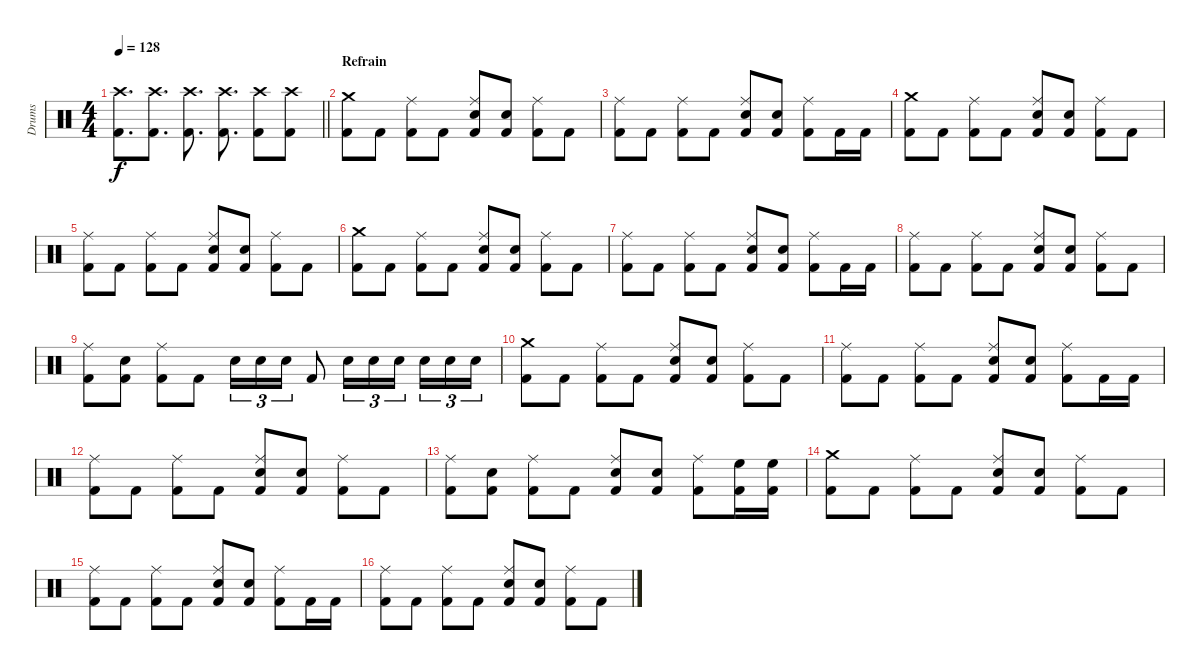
\track ("Drums" "Drums") {instrument percussion}
\staff {score}
\articulation defaults
\ts (4 4)
\tempo 128
\clef neutral
\barLineRight lightlight
\ks c
("Crash high (hit)" "Kick (hit) 2").8{d dy f} ("Crash high (hit)" "Kick (hit) 2").8{d} ("Crash high (hit)" "Kick (hit) 2").8{d} ("Crash high (hit)" "Kick (hit) 2").8{d} ("Crash high (hit)" "Kick (hit) 2").8 ("Crash high (hit)" "Kick (hit) 2").8 |
\section ("" "Refrain")
("Crash medium (hit)" "Kick (hit) 2").8 "Kick (hit) 2".8 ("Ride (middle)" "Kick (hit) 2").8 "Kick (hit) 2".8 ("Ride (middle)" "Snare (hit) 2" "Kick (hit) 2").8 ("Snare (hit) 2" "Kick (hit) 2").8 ("Ride (middle)" "Kick (hit) 2").8 "Kick (hit) 2".8 |
("Ride (middle)" "Kick (hit) 2").8 "Kick (hit) 2".8 ("Ride (middle)" "Kick (hit) 2").8 "Kick (hit) 2".8 ("Ride (middle)" "Snare (hit) 2" "Kick (hit) 2").8 ("Snare (hit) 2" "Kick (hit) 2").8 ("Ride (middle)" "Kick (hit) 2").8 "Kick (hit) 2".16 "Kick (hit) 2".16 |
("Crash medium (hit)" "Kick (hit) 2").8 "Kick (hit) 2".8 ("Ride (middle)" "Kick (hit) 2").8 "Kick (hit) 2".8 ("Ride (middle)" "Snare (hit) 2" "Kick (hit) 2").8 ("Snare (hit) 2" "Kick (hit) 2").8 ("Ride (middle)" "Kick (hit) 2").8 "Kick (hit) 2".8 |
("Ride (middle)" "Kick (hit) 2").8 "Kick (hit) 2".8 ("Ride (middle)" "Kick (hit) 2").8 "Kick (hit) 2".8 ("Ride (middle)" "Snare (hit) 2" "Kick (hit) 2").8 ("Snare (hit) 2" "Kick (hit) 2").8 ("Ride (middle)" "Kick (hit) 2").8 "Kick (hit) 2".8 |
("Crash medium (hit)" "Kick (hit) 2").8 "Kick (hit) 2".8 ("Ride (middle)" "Kick (hit) 2").8 "Kick (hit) 2".8 ("Ride (middle)" "Snare (hit) 2" "Kick (hit) 2").8 ("Snare (hit) 2" "Kick (hit) 2").8 ("Ride (middle)" "Kick (hit) 2").8 "Kick (hit) 2".8 |
("Ride (middle)" "Kick (hit) 2").8 "Kick (hit) 2".8 ("Ride (middle)" "Kick (hit) 2").8 "Kick (hit) 2".8 ("Ride (middle)" "Snare (hit) 2" "Kick (hit) 2").8 ("Snare (hit) 2" "Kick (hit) 2").8 ("Ride (middle)" "Kick (hit) 2").8 "Kick (hit) 2".16 "Kick (hit) 2".16 |
("Ride (middle)" "Kick (hit) 2").8 "Kick (hit) 2".8 ("Ride (middle)" "Kick (hit) 2").8 "Kick (hit) 2".8 ("Ride (middle)" "Snare (hit) 2" "Kick (hit) 2").8 ("Snare (hit) 2" "Kick (hit) 2").8 ("Ride (middle)" "Kick (hit) 2").8 "Kick (hit) 2".8 |
("Ride (middle)" "Kick (hit) 2").8 ("Snare (hit) 2" "Kick (hit) 2").8 ("Ride (middle)" "Kick (hit) 2").8 "Kick (hit) 2".8 "Snare (hit) 2".16{tu (3 2)} "Snare (hit) 2".16{tu (3 2)} "Snare (hit) 2".16{tu (3 2)} "Kick (hit) 2".8 "Snare (hit) 2".16{tu (3 2)} "Snare (hit) 2".16{tu (3 2)} "Snare (hit) 2".16{tu (3 2) beam splitsecondary} "Snare (hit) 2".16{tu (3 2)} "Snare (hit) 2".16{tu (3 2)} "Snare (hit) 2".16{tu (3 2)} |
("Crash medium (hit)" "Kick (hit) 2").8 "Kick (hit) 2".8 ("Ride (middle)" "Kick (hit) 2").8 "Kick (hit) 2".8 ("Ride (middle)" "Snare (hit) 2" "Kick (hit) 2").8 ("Snare (hit) 2" "Kick (hit) 2").8 ("Ride (middle)" "Kick (hit) 2").8 "Kick (hit) 2".8 |
("Ride (middle)" "Kick (hit) 2").8 "Kick (hit) 2".8 ("Ride (middle)" "Kick (hit) 2").8 "Kick (hit) 2".8 ("Ride (middle)" "Snare (hit) 2" "Kick (hit) 2").8 ("Snare (hit) 2" "Kick (hit) 2").8 ("Ride (middle)" "Kick (hit) 2").8 "Kick (hit) 2".16 "Kick (hit) 2".16 |
("Ride (middle)" "Kick (hit) 2").8 "Kick (hit) 2".8 ("Ride (middle)" "Kick (hit) 2").8 "Kick (hit) 2".8 ("Ride (middle)" "Snare (hit) 2" "Kick (hit) 2").8 ("Snare (hit) 2" "Kick (hit) 2").8 ("Ride (middle)" "Kick (hit) 2").8 "Kick (hit) 2".8 |
("Ride (middle)" "Kick (hit) 2").8 ("Snare (hit) 2" "Kick (hit) 2").8 ("Ride (middle)" "Kick (hit) 2").8 "Kick (hit) 2".8 ("Ride (middle)" "Snare (hit) 2" "Kick (hit) 2").8 ("Snare (hit) 2" "Kick (hit) 2").8 ("Ride (middle)" "Kick (hit) 2").8 ("High Floor Tom (hit)" "Kick (hit) 2").16 ("High Floor Tom (hit)" "Kick (hit) 2").16 |
("Crash medium (hit)" "Kick (hit) 2").8 "Kick (hit) 2".8 ("Ride (middle)" "Kick (hit) 2").8 "Kick (hit) 2".8 ("Ride (middle)" "Snare (hit) 2" "Kick (hit) 2").8 ("Snare (hit) 2" "Kick (hit) 2").8 ("Ride (middle)" "Kick (hit) 2").8 "Kick (hit) 2".8 |
("Ride (middle)" "Kick (hit) 2").8 "Kick (hit) 2".8 ("Ride (middle)" "Kick (hit) 2").8 "Kick (hit) 2".8 ("Ride (middle)" "Snare (hit) 2" "Kick (hit) 2").8 ("Snare (hit) 2" "Kick (hit) 2").8 ("Ride (middle)" "Kick (hit) 2").8 "Kick (hit) 2".16 "Kick (hit) 2".16 |
("Ride (middle)" "Kick (hit) 2").8 "Kick (hit) 2".8 ("Ride (middle)" "Kick (hit) 2").8 "Kick (hit) 2".8 ("Ride (middle)" "Snare (hit) 2" "Kick (hit) 2").8 ("Snare (hit) 2" "Kick (hit) 2").8 ("Ride (middle)" "Kick (hit) 2").8 "Kick (hit) 2".8
